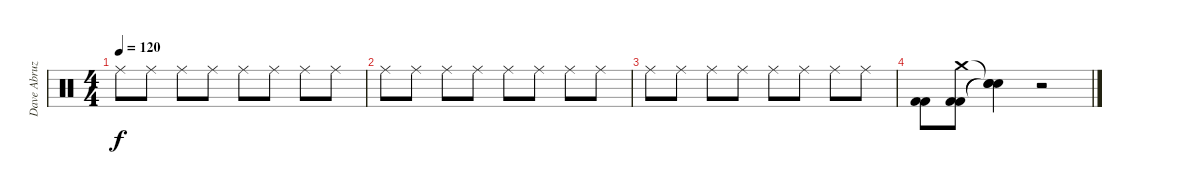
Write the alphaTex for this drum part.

\track ("Dave Abruzzese" "Dave Abruz") {instrument percussion}
\staff {score}
\articulation defaults
\ts (4 4)
\tempo 120
\clef neutral
\ks c "Ride (middle)".8{dy f} "Ride (middle)".8 "Ride (middle)".8 "Ride (middle)".8 "Ride (middle)".8 "Ride (middle)".8 "Ride (middle)".8 "Ride (middle)".8
|
"Ride (middle)".8 "Ride (middle)".8 "Ride (middle)".8 "Ride (middle)".8 "Ride (middle)".8 "Ride (middle)".8 "Ride (middle)".8 "Ride (middle)".8 |
"Ride (middle)".8 "Ride (middle)".8 "Ride (middle)".8 "Ride (middle)".8 "Ride (middle)".8 "Ride (middle)".8 "Ride (middle)".8 "Ride (middle)".8 |
("Kick (hit) 2" "Kick (hit) 2").8 ("Crash medium (hit)" "Kick (hit) 2" "Kick (hit) 2").8 ("Snare (hit)"{t} "Snare (hit)"{t} "Snare (hit)"{t}).4 r.2
